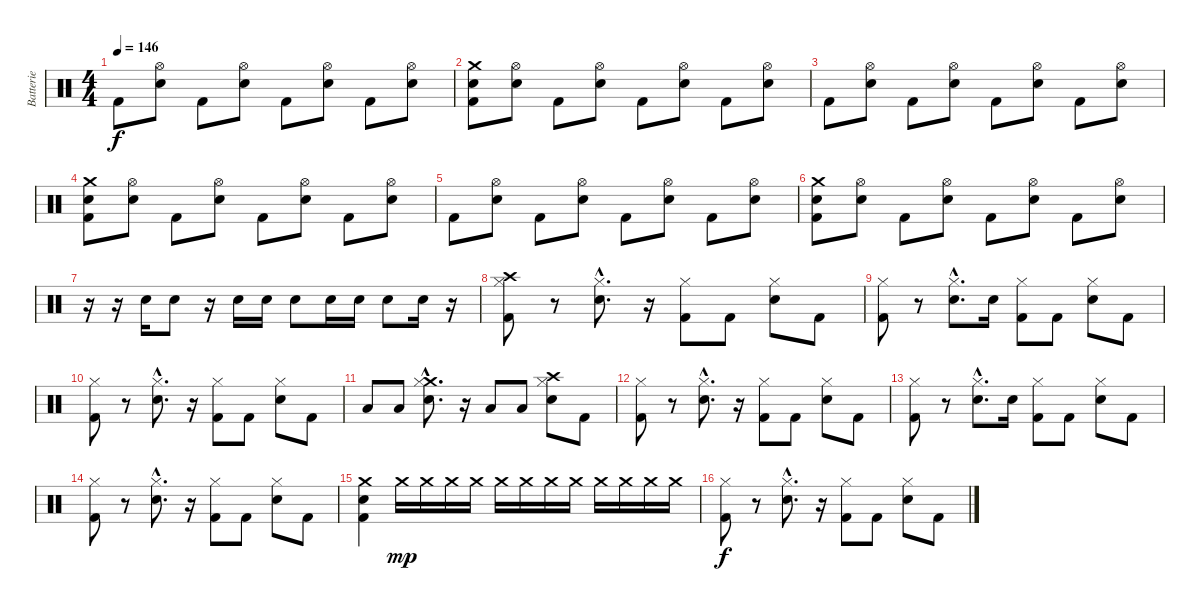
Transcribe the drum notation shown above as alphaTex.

\track ("Batterie" "Batterie") {instrument percussion}
\staff {score}
\articulation defaults
\ts (4 4)
\tempo 146
\clef neutral
\ks c "Kick (hit) 2".8{dy f}
("Electric Snare (hit)" "Hi-Hat (open)").8 "Kick (hit) 2".8 ("Electric Snare (hit)" "Hi-Hat (open)").8 "Kick (hit) 2".8 ("Electric Snare (hit)" "Hi-Hat (open)").8 "Kick (hit) 2".8 ("Electric Snare (hit)" "Hi-Hat (open)").8 |
("Kick (hit) 2" "Electric Snare (hit)" "Crash medium (hit)").8 ("Electric Snare (hit)" "Hi-Hat (open)").8 "Kick (hit) 2".8 ("Electric Snare (hit)" "Hi-Hat (open)").8 "Kick (hit) 2".8 ("Electric Snare (hit)" "Hi-Hat (open)").8 "Kick (hit) 2".8 ("Electric Snare (hit)" "Hi-Hat (open)").8 |
"Kick (hit) 2".8 ("Electric Snare (hit)" "Hi-Hat (open)").8 "Kick (hit) 2".8 ("Electric Snare (hit)" "Hi-Hat (open)").8 "Kick (hit) 2".8 ("Electric Snare (hit)" "Hi-Hat (open)").8 "Kick (hit) 2".8 ("Electric Snare (hit)" "Hi-Hat (open)").8 |
("Kick (hit) 2" "Electric Snare (hit)" "Crash medium (hit)").8 ("Electric Snare (hit)" "Hi-Hat (open)").8 "Kick (hit) 2".8 ("Electric Snare (hit)" "Hi-Hat (open)").8 "Kick (hit) 2".8 ("Electric Snare (hit)" "Hi-Hat (open)").8 "Kick (hit) 2".8 ("Electric Snare (hit)" "Hi-Hat (open)").8 |
"Kick (hit) 2".8 ("Electric Snare (hit)" "Hi-Hat (open)").8 "Kick (hit) 2".8 ("Electric Snare (hit)" "Hi-Hat (open)").8 "Kick (hit) 2".8 ("Electric Snare (hit)" "Hi-Hat (open)").8 "Kick (hit) 2".8 ("Electric Snare (hit)" "Hi-Hat (open)").8 |
("Kick (hit) 2" "Electric Snare (hit)" "Crash medium (hit)").8 ("Electric Snare (hit)" "Hi-Hat (open)").8 "Kick (hit) 2".8 ("Electric Snare (hit)" "Hi-Hat (open)").8 "Kick (hit) 2".8 ("Electric Snare (hit)" "Hi-Hat (open)").8 "Kick (hit) 2".8 ("Electric Snare (hit)" "Hi-Hat (open)").8 |
r.16 r.16 "Electric Snare (hit)".16 "Electric Snare (hit)".8 r.16 "Electric Snare (hit)".16 "Electric Snare (hit)".16 "Electric Snare (hit)".8 "Electric Snare (hit)".16 "Electric Snare (hit)".16 "Electric Snare (hit)".8 "Electric Snare (hit)".16 r.16 |
("Crash high (hit)" "Hi-Hat (closed)" "Kick (hit) 2").8 r.8 ("Hi-Hat (closed)"{hac} "Snare (hit) 2"{hac}).8{d} r.16 ("Hi-Hat (closed)" "Kick (hit) 2").8 "Kick (hit) 2".8 ("Hi-Hat (closed)" "Snare (hit) 2").8 "Kick (hit) 2".8 |
("Hi-Hat (closed)" "Kick (hit) 2").8 r.8 ("Hi-Hat (closed)"{hac} "Snare (hit) 2"{hac}).8{d} "Snare (hit) 2".16 ("Hi-Hat (closed)" "Kick (hit) 2").8 "Kick (hit) 2".8 ("Hi-Hat (closed)" "Snare (hit) 2").8 "Kick (hit) 2".8 |
("Hi-Hat (closed)" "Kick (hit) 2").8 r.8 ("Hi-Hat (closed)"{hac} "Snare (hit) 2"{hac}).8{d} r.16 ("Hi-Hat (closed)" "Kick (hit) 2").8 "Kick (hit) 2".8 ("Hi-Hat (closed)" "Snare (hit) 2").8 "Kick (hit) 2".8 |
"Low Floor Tom (hit)".8 "Low Floor Tom (hit)".8 ("Crash medium (hit)"{hac} "Hi-Hat (closed)"{hac} "Snare (hit) 2"{hac}).8{d} r.16 "Low Floor Tom (hit)".8 "Low Floor Tom (hit)".8 ("Crash high (hit)" "Hi-Hat (closed)" "Snare (hit) 2").8 "Kick (hit) 2".8 |
("Hi-Hat (closed)" "Kick (hit) 2").8 r.8 ("Hi-Hat (closed)"{hac} "Snare (hit) 2"{hac}).8{d} r.16 ("Hi-Hat (closed)" "Kick (hit) 2").8 "Kick (hit) 2".8 ("Hi-Hat (closed)" "Snare (hit) 2").8 "Kick (hit) 2".8 |
("Hi-Hat (closed)" "Kick (hit) 2").8 r.8 ("Hi-Hat (closed)"{hac} "Snare (hit) 2"{hac}).8{d} "Snare (hit) 2".16 ("Hi-Hat (closed)" "Kick (hit) 2").8 "Kick (hit) 2".8 ("Hi-Hat (closed)" "Snare (hit) 2").8 "Kick (hit) 2".8 |
("Hi-Hat (closed)" "Kick (hit) 2").8 r.8 ("Hi-Hat (closed)"{hac} "Snare (hit) 2"{hac}).8{d} r.16 ("Hi-Hat (closed)" "Kick (hit) 2").8 "Kick (hit) 2".8 ("Hi-Hat (closed)" "Snare (hit) 2").8 "Kick (hit) 2".8 |
("Kick (hit) 2" "Electric Snare (hit)" "Crash medium (hit)").4 "Crash medium (hit)".16{dy mp} "Crash medium (hit)".16 "Crash medium (hit)".16 "Crash medium (hit)".16 "Crash medium (hit)".16 "Crash medium (hit)".16 "Crash medium (hit)".16 "Crash medium (hit)".16 "Crash medium (hit)".16 "Crash medium (hit)".16 "Crash medium (hit)".16 "Crash medium (hit)".16 |
("Hi-Hat (closed)" "Kick (hit) 2").8{dy f} r.8 ("Hi-Hat (closed)"{hac} "Snare (hit) 2"{hac}).8{d} r.16 ("Hi-Hat (closed)" "Kick (hit) 2").8 "Kick (hit) 2".8 ("Hi-Hat (closed)" "Snare (hit) 2").8 "Kick (hit) 2".8
